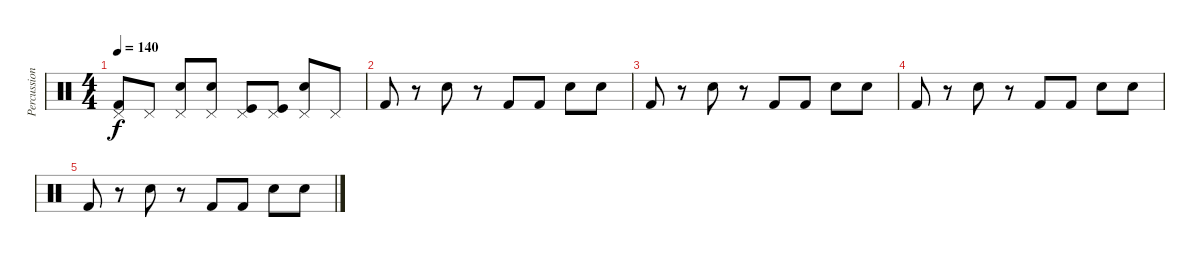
\track ("Percussion" "Percussion") {instrument percussion}
\staff {score}
\articulation defaults
\ts (4 4)
\tempo 140
\clef neutral
\ks c
("Pedal Hi-Hat (hit)" "Kick (hit) 2").8{dy f} "Pedal Hi-Hat (hit)".8 ("Pedal Hi-Hat (hit)" "Snare (hit) 2").8 ("Pedal Hi-Hat (hit)" "Snare (hit) 2").8 ("Pedal Hi-Hat (hit)" "Kick (hit)").8 ("Pedal Hi-Hat (hit)" "Kick (hit)").8 ("Pedal Hi-Hat (hit)" "Snare (hit) 2").8 "Pedal Hi-Hat (hit)".8 |
"Kick (hit) 2".8 r.8 "Snare (hit) 2".8 r.8 "Kick (hit) 2".8 "Kick (hit) 2".8 "Snare (hit) 2".8 "Snare (hit) 2".8 |
"Kick (hit) 2".8 r.8 "Snare (hit) 2".8 r.8 "Kick (hit) 2".8 "Kick (hit) 2".8 "Snare (hit) 2".8 "Snare (hit) 2".8 |
"Kick (hit) 2".8 r.8 "Snare (hit) 2".8 r.8 "Kick (hit) 2".8 "Kick (hit) 2".8 "Snare (hit) 2".8 "Snare (hit) 2".8 |
"Kick (hit) 2".8 r.8 "Snare (hit) 2".8 r.8 "Kick (hit) 2".8 "Kick (hit) 2".8 "Snare (hit) 2".8 "Snare (hit) 2".8
